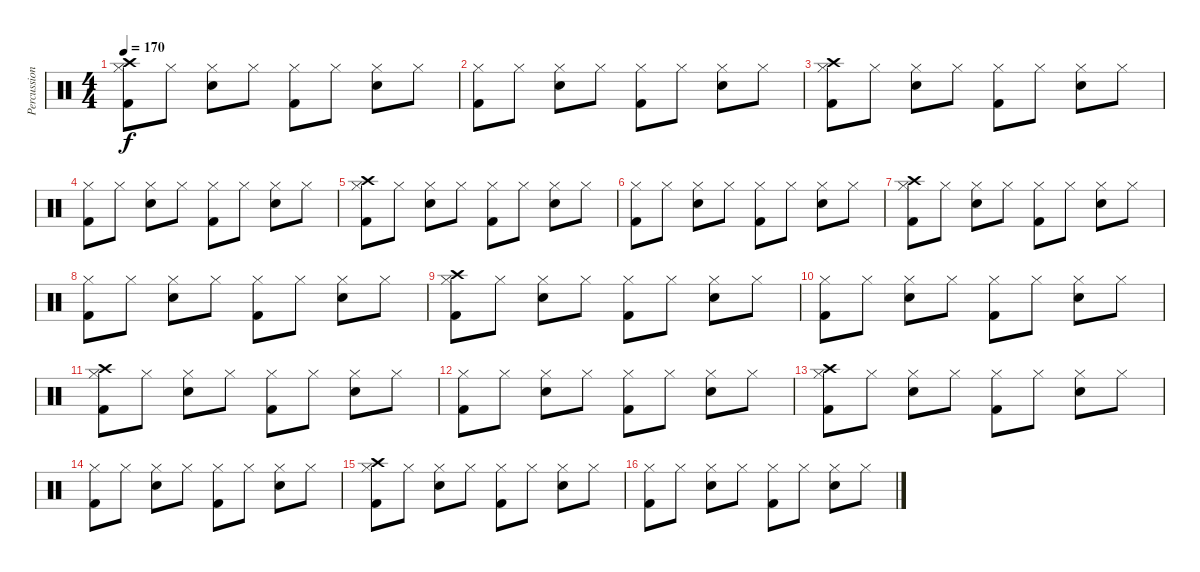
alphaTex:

\track ("Percussion" "Percussion") {instrument percussion}
\staff {score}
\articulation defaults
\ts (4 4)
\tempo 170
\clef neutral
\ks c
("Hi-Hat (closed)" "Crash high (hit)" "Kick (hit) 2").8{dy f} "Hi-Hat (closed)".8 ("Hi-Hat (closed)" "Snare (hit) 2").8 "Hi-Hat (closed)".8 ("Hi-Hat (closed)" "Kick (hit) 2").8 "Hi-Hat (closed)".8 ("Hi-Hat (closed)" "Snare (hit) 2").8 "Hi-Hat (closed)".8 |
("Hi-Hat (closed)" "Kick (hit) 2").8 "Hi-Hat (closed)".8 ("Hi-Hat (closed)" "Snare (hit) 2").8 "Hi-Hat (closed)".8 ("Hi-Hat (closed)" "Kick (hit) 2").8 "Hi-Hat (closed)".8 ("Hi-Hat (closed)" "Snare (hit) 2").8 "Hi-Hat (closed)".8 |
("Hi-Hat (closed)" "Crash high (hit)" "Kick (hit) 2").8 "Hi-Hat (closed)".8 ("Hi-Hat (closed)" "Snare (hit) 2").8 "Hi-Hat (closed)".8 ("Hi-Hat (closed)" "Kick (hit) 2").8 "Hi-Hat (closed)".8 ("Hi-Hat (closed)" "Snare (hit) 2").8 "Hi-Hat (closed)".8 |
("Hi-Hat (closed)" "Kick (hit) 2").8 "Hi-Hat (closed)".8 ("Hi-Hat (closed)" "Snare (hit) 2").8 "Hi-Hat (closed)".8 ("Hi-Hat (closed)" "Kick (hit) 2").8 "Hi-Hat (closed)".8 ("Hi-Hat (closed)" "Snare (hit) 2").8 "Hi-Hat (closed)".8 |
("Hi-Hat (closed)" "Crash high (hit)" "Kick (hit) 2").8 "Hi-Hat (closed)".8 ("Hi-Hat (closed)" "Snare (hit) 2").8 "Hi-Hat (closed)".8 ("Hi-Hat (closed)" "Kick (hit) 2").8 "Hi-Hat (closed)".8 ("Hi-Hat (closed)" "Snare (hit) 2").8 "Hi-Hat (closed)".8 |
("Hi-Hat (closed)" "Kick (hit) 2").8 "Hi-Hat (closed)".8 ("Hi-Hat (closed)" "Snare (hit) 2").8 "Hi-Hat (closed)".8 ("Hi-Hat (closed)" "Kick (hit) 2").8 "Hi-Hat (closed)".8 ("Hi-Hat (closed)" "Snare (hit) 2").8 "Hi-Hat (closed)".8 |
("Hi-Hat (closed)" "Crash high (hit)" "Kick (hit) 2").8 "Hi-Hat (closed)".8 ("Hi-Hat (closed)" "Snare (hit) 2").8 "Hi-Hat (closed)".8 ("Hi-Hat (closed)" "Kick (hit) 2").8 "Hi-Hat (closed)".8 ("Hi-Hat (closed)" "Snare (hit) 2").8 "Hi-Hat (closed)".8 |
("Hi-Hat (closed)" "Kick (hit) 2").8 "Hi-Hat (closed)".8 ("Hi-Hat (closed)" "Snare (hit) 2").8 "Hi-Hat (closed)".8 ("Hi-Hat (closed)" "Kick (hit) 2").8 "Hi-Hat (closed)".8 ("Hi-Hat (closed)" "Snare (hit) 2").8 "Hi-Hat (closed)".8 |
("Hi-Hat (closed)" "Crash high (hit)" "Kick (hit) 2").8 "Hi-Hat (closed)".8 ("Hi-Hat (closed)" "Snare (hit) 2").8 "Hi-Hat (closed)".8 ("Hi-Hat (closed)" "Kick (hit) 2").8 "Hi-Hat (closed)".8 ("Hi-Hat (closed)" "Snare (hit) 2").8 "Hi-Hat (closed)".8 |
("Hi-Hat (closed)" "Kick (hit) 2").8 "Hi-Hat (closed)".8 ("Hi-Hat (closed)" "Snare (hit) 2").8 "Hi-Hat (closed)".8 ("Hi-Hat (closed)" "Kick (hit) 2").8 "Hi-Hat (closed)".8 ("Hi-Hat (closed)" "Snare (hit) 2").8 "Hi-Hat (closed)".8 |
("Hi-Hat (closed)" "Crash high (hit)" "Kick (hit) 2").8 "Hi-Hat (closed)".8 ("Hi-Hat (closed)" "Snare (hit) 2").8 "Hi-Hat (closed)".8 ("Hi-Hat (closed)" "Kick (hit) 2").8 "Hi-Hat (closed)".8 ("Hi-Hat (closed)" "Snare (hit) 2").8 "Hi-Hat (closed)".8 |
("Hi-Hat (closed)" "Kick (hit) 2").8 "Hi-Hat (closed)".8 ("Hi-Hat (closed)" "Snare (hit) 2").8 "Hi-Hat (closed)".8 ("Hi-Hat (closed)" "Kick (hit) 2").8 "Hi-Hat (closed)".8 ("Hi-Hat (closed)" "Snare (hit) 2").8 "Hi-Hat (closed)".8 |
("Hi-Hat (closed)" "Crash high (hit)" "Kick (hit) 2").8 "Hi-Hat (closed)".8 ("Hi-Hat (closed)" "Snare (hit) 2").8 "Hi-Hat (closed)".8 ("Hi-Hat (closed)" "Kick (hit) 2").8 "Hi-Hat (closed)".8 ("Hi-Hat (closed)" "Snare (hit) 2").8 "Hi-Hat (closed)".8 |
("Hi-Hat (closed)" "Kick (hit) 2").8 "Hi-Hat (closed)".8 ("Hi-Hat (closed)" "Snare (hit) 2").8 "Hi-Hat (closed)".8 ("Hi-Hat (closed)" "Kick (hit) 2").8 "Hi-Hat (closed)".8 ("Hi-Hat (closed)" "Snare (hit) 2").8 "Hi-Hat (closed)".8 |
("Hi-Hat (closed)" "Crash high (hit)" "Kick (hit) 2").8 "Hi-Hat (closed)".8 ("Hi-Hat (closed)" "Snare (hit) 2").8 "Hi-Hat (closed)".8 ("Hi-Hat (closed)" "Kick (hit) 2").8 "Hi-Hat (closed)".8 ("Hi-Hat (closed)" "Snare (hit) 2").8 "Hi-Hat (closed)".8 |
("Hi-Hat (closed)" "Kick (hit) 2").8 "Hi-Hat (closed)".8 ("Hi-Hat (closed)" "Snare (hit) 2").8 "Hi-Hat (closed)".8 ("Hi-Hat (closed)" "Kick (hit) 2").8 "Hi-Hat (closed)".8 ("Hi-Hat (closed)" "Snare (hit) 2").8 "Hi-Hat (closed)".8
